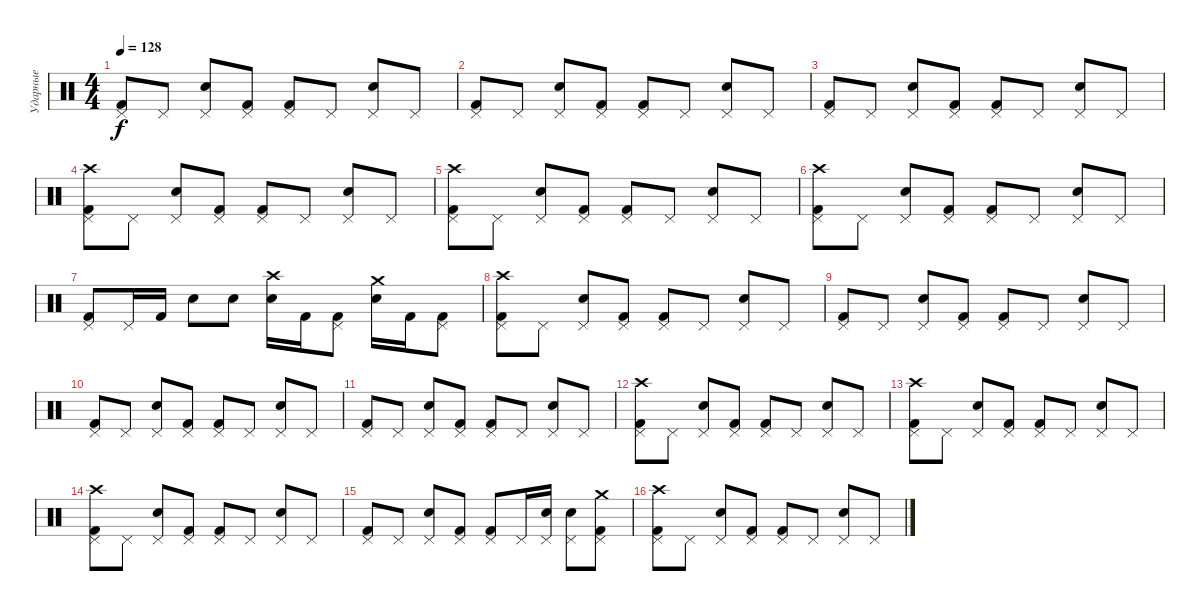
\track ("Ударные" "Ударные") {instrument percussion}
\staff {score}
\articulation defaults
\ts (4 4)
\tempo 128
\clef neutral
\ks c
("Kick (hit) 2" "Pedal Hi-Hat (hit)").8{dy f} "Pedal Hi-Hat (hit)".8 ("Pedal Hi-Hat (hit)" "Electric Snare (hit)").8 ("Kick (hit) 2" "Pedal Hi-Hat (hit)").8 ("Kick (hit) 2" "Pedal Hi-Hat (hit)").8 "Pedal Hi-Hat (hit)".8 ("Pedal Hi-Hat (hit)" "Electric Snare (hit)").8 "Pedal Hi-Hat (hit)".8 |
("Kick (hit) 2" "Pedal Hi-Hat (hit)").8 "Pedal Hi-Hat (hit)".8 ("Pedal Hi-Hat (hit)" "Electric Snare (hit)").8 ("Kick (hit) 2" "Pedal Hi-Hat (hit)").8 ("Kick (hit) 2" "Pedal Hi-Hat (hit)").8 "Pedal Hi-Hat (hit)".8 ("Pedal Hi-Hat (hit)" "Electric Snare (hit)").8 "Pedal Hi-Hat (hit)".8 |
("Kick (hit) 2" "Pedal Hi-Hat (hit)").8 "Pedal Hi-Hat (hit)".8 ("Pedal Hi-Hat (hit)" "Electric Snare (hit)").8 ("Kick (hit) 2" "Pedal Hi-Hat (hit)").8 ("Kick (hit) 2" "Pedal Hi-Hat (hit)").8 "Pedal Hi-Hat (hit)".8 ("Pedal Hi-Hat (hit)" "Electric Snare (hit)").8 "Pedal Hi-Hat (hit)".8 |
("Kick (hit) 2" "Pedal Hi-Hat (hit)" "Crash high (hit)").8 "Pedal Hi-Hat (hit)".8 ("Pedal Hi-Hat (hit)" "Electric Snare (hit)").8 ("Kick (hit) 2" "Pedal Hi-Hat (hit)").8 ("Kick (hit) 2" "Pedal Hi-Hat (hit)").8 "Pedal Hi-Hat (hit)".8 ("Pedal Hi-Hat (hit)" "Electric Snare (hit)").8 "Pedal Hi-Hat (hit)".8 |
("Kick (hit) 2" "Pedal Hi-Hat (hit)" "Crash high (hit)").8 "Pedal Hi-Hat (hit)".8 ("Pedal Hi-Hat (hit)" "Electric Snare (hit)").8 ("Kick (hit) 2" "Pedal Hi-Hat (hit)").8 ("Kick (hit) 2" "Pedal Hi-Hat (hit)").8 "Pedal Hi-Hat (hit)".8 ("Pedal Hi-Hat (hit)" "Electric Snare (hit)").8 "Pedal Hi-Hat (hit)".8 |
("Kick (hit) 2" "Pedal Hi-Hat (hit)" "Crash high (hit)").8 "Pedal Hi-Hat (hit)".8 ("Pedal Hi-Hat (hit)" "Electric Snare (hit)").8 ("Kick (hit) 2" "Pedal Hi-Hat (hit)").8 ("Kick (hit) 2" "Pedal Hi-Hat (hit)").8 "Pedal Hi-Hat (hit)".8 ("Pedal Hi-Hat (hit)" "Electric Snare (hit)").8 "Pedal Hi-Hat (hit)".8 |
("Kick (hit) 2" "Pedal Hi-Hat (hit)").8 "Pedal Hi-Hat (hit)".16 "Kick (hit) 2".16 "Electric Snare (hit)".8 "Electric Snare (hit)".8 ("Electric Snare (hit)" "Crash high (hit)").16 "Kick (hit) 2".16 ("Kick (hit) 2" "Pedal Hi-Hat (hit)").8 ("Electric Snare (hit)" "Crash medium (hit)").16 "Kick (hit) 2".16 ("Kick (hit) 2" "Pedal Hi-Hat (hit)").8 |
("Kick (hit) 2" "Pedal Hi-Hat (hit)" "Crash high (hit)").8 "Pedal Hi-Hat (hit)".8 ("Pedal Hi-Hat (hit)" "Electric Snare (hit)").8 ("Kick (hit) 2" "Pedal Hi-Hat (hit)").8 ("Kick (hit) 2" "Pedal Hi-Hat (hit)").8 "Pedal Hi-Hat (hit)".8 ("Pedal Hi-Hat (hit)" "Electric Snare (hit)").8 "Pedal Hi-Hat (hit)".8 |
("Kick (hit) 2" "Pedal Hi-Hat (hit)").8 "Pedal Hi-Hat (hit)".8 ("Pedal Hi-Hat (hit)" "Electric Snare (hit)").8 ("Kick (hit) 2" "Pedal Hi-Hat (hit)").8 ("Kick (hit) 2" "Pedal Hi-Hat (hit)").8 "Pedal Hi-Hat (hit)".8 ("Pedal Hi-Hat (hit)" "Electric Snare (hit)").8 "Pedal Hi-Hat (hit)".8 |
("Kick (hit) 2" "Pedal Hi-Hat (hit)").8 "Pedal Hi-Hat (hit)".8 ("Pedal Hi-Hat (hit)" "Electric Snare (hit)").8 ("Kick (hit) 2" "Pedal Hi-Hat (hit)").8 ("Kick (hit) 2" "Pedal Hi-Hat (hit)").8 "Pedal Hi-Hat (hit)".8 ("Pedal Hi-Hat (hit)" "Electric Snare (hit)").8 "Pedal Hi-Hat (hit)".8 |
("Kick (hit) 2" "Pedal Hi-Hat (hit)").8 "Pedal Hi-Hat (hit)".8 ("Pedal Hi-Hat (hit)" "Electric Snare (hit)").8 ("Kick (hit) 2" "Pedal Hi-Hat (hit)").8 ("Kick (hit) 2" "Pedal Hi-Hat (hit)").8 "Pedal Hi-Hat (hit)".8 ("Pedal Hi-Hat (hit)" "Electric Snare (hit)").8 "Pedal Hi-Hat (hit)".8 |
("Kick (hit) 2" "Pedal Hi-Hat (hit)" "Crash high (hit)").8 "Pedal Hi-Hat (hit)".8 ("Pedal Hi-Hat (hit)" "Electric Snare (hit)").8 ("Kick (hit) 2" "Pedal Hi-Hat (hit)").8 ("Kick (hit) 2" "Pedal Hi-Hat (hit)").8 "Pedal Hi-Hat (hit)".8 ("Pedal Hi-Hat (hit)" "Electric Snare (hit)").8 "Pedal Hi-Hat (hit)".8 |
("Kick (hit) 2" "Pedal Hi-Hat (hit)" "Crash high (hit)").8 "Pedal Hi-Hat (hit)".8 ("Pedal Hi-Hat (hit)" "Electric Snare (hit)").8 ("Kick (hit) 2" "Pedal Hi-Hat (hit)").8 ("Kick (hit) 2" "Pedal Hi-Hat (hit)").8 "Pedal Hi-Hat (hit)".8 ("Pedal Hi-Hat (hit)" "Electric Snare (hit)").8 "Pedal Hi-Hat (hit)".8 |
("Kick (hit) 2" "Pedal Hi-Hat (hit)" "Crash high (hit)").8 "Pedal Hi-Hat (hit)".8 ("Pedal Hi-Hat (hit)" "Electric Snare (hit)").8 ("Kick (hit) 2" "Pedal Hi-Hat (hit)").8 ("Kick (hit) 2" "Pedal Hi-Hat (hit)").8 "Pedal Hi-Hat (hit)".8 ("Pedal Hi-Hat (hit)" "Electric Snare (hit)").8 "Pedal Hi-Hat (hit)".8 |
("Kick (hit) 2" "Pedal Hi-Hat (hit)").8 "Pedal Hi-Hat (hit)".8 ("Pedal Hi-Hat (hit)" "Electric Snare (hit)").8 ("Kick (hit) 2" "Pedal Hi-Hat (hit)").8 ("Kick (hit) 2" "Pedal Hi-Hat (hit)").8 "Pedal Hi-Hat (hit)".16 ("Pedal Hi-Hat (hit)" "Electric Snare (hit)").16 ("Pedal Hi-Hat (hit)" "Electric Snare (hit)").8 ("Kick (hit) 2" "Pedal Hi-Hat (hit)" "Crash medium (hit)").8 |
("Kick (hit) 2" "Pedal Hi-Hat (hit)" "Crash high (hit)").8 "Pedal Hi-Hat (hit)".8 ("Pedal Hi-Hat (hit)" "Electric Snare (hit)").8 ("Kick (hit) 2" "Pedal Hi-Hat (hit)").8 ("Kick (hit) 2" "Pedal Hi-Hat (hit)").8 "Pedal Hi-Hat (hit)".8 ("Pedal Hi-Hat (hit)" "Electric Snare (hit)").8 "Pedal Hi-Hat (hit)".8
